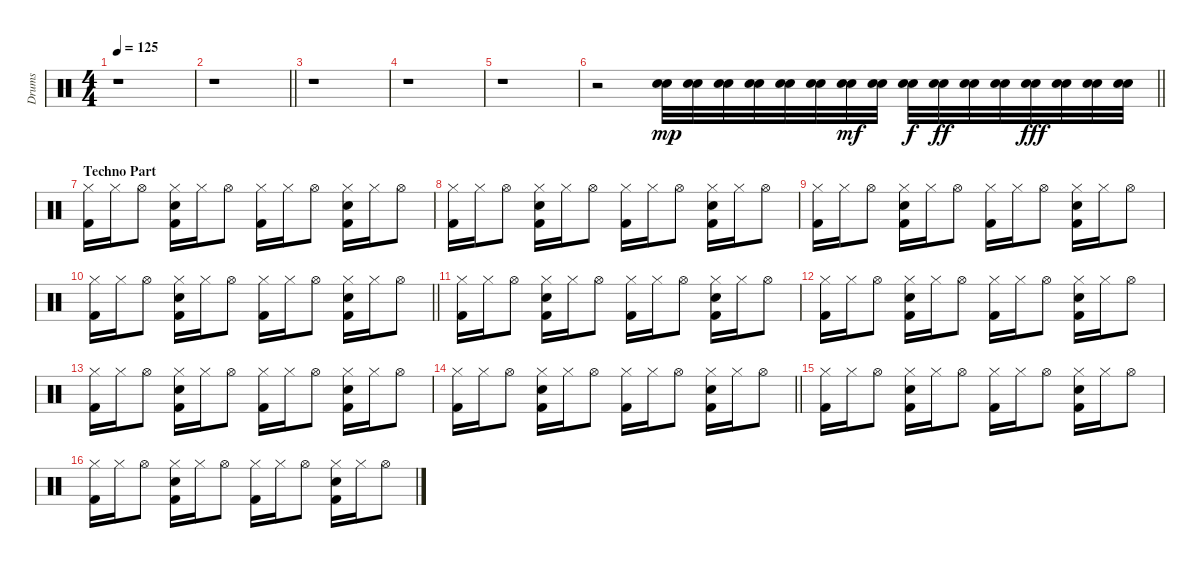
\track ("Drums" "Drums") {instrument percussion}
\staff {score}
\articulation defaults
\ts (4 4)
\tempo 125
\clef neutral
\ks c
r.1{dy fff} |
\barLineRight lightlight
r.1 |
r.1 |
r.1 |
r.1 |
\barLineRight lightlight
r.2 ("Hand Clap (hit)" "Electric Snare (hit)").32{dy mp} ("Hand Clap (hit)" "Electric Snare (hit)").32 ("Hand Clap (hit)" "Electric Snare (hit)").32 ("Hand Clap (hit)" "Electric Snare (hit)").32 ("Hand Clap (hit)" "Electric Snare (hit)").32 ("Hand Clap (hit)" "Electric Snare (hit)").32 ("Hand Clap (hit)" "Electric Snare (hit)").32{dy mf} ("Hand Clap (hit)" "Electric Snare (hit)").32 ("Hand Clap (hit)" "Electric Snare (hit)").32{dy f} ("Hand Clap (hit)" "Electric Snare (hit)").32{dy ff} ("Hand Clap (hit)" "Electric Snare (hit)").32 ("Hand Clap (hit)" "Electric Snare (hit)").32 ("Hand Clap (hit)" "Electric Snare (hit)").32{dy fff} ("Hand Clap (hit)" "Electric Snare (hit)").32 ("Hand Clap (hit)" "Electric Snare (hit)").32 ("Hand Clap (hit)" "Electric Snare (hit)").32 |
\section ("" "Techno Part")
("Hi-Hat (closed)" "Kick (hit) 2").16 "Hi-Hat (closed)".16 "Hi-Hat (open)".8 ("Hi-Hat (closed)" "Hand Clap (hit)" "Kick (hit) 2").16 "Hi-Hat (closed)".16 "Hi-Hat (open)".8 ("Hi-Hat (closed)" "Kick (hit) 2").16 "Hi-Hat (closed)".16 "Hi-Hat (open)".8 ("Hi-Hat (closed)" "Hand Clap (hit)" "Kick (hit) 2").16 "Hi-Hat (closed)".16 "Hi-Hat (open)".8 |
("Hi-Hat (closed)" "Kick (hit) 2").16 "Hi-Hat (closed)".16 "Hi-Hat (open)".8 ("Hi-Hat (closed)" "Hand Clap (hit)" "Kick (hit) 2").16 "Hi-Hat (closed)".16 "Hi-Hat (open)".8 ("Hi-Hat (closed)" "Kick (hit) 2").16 "Hi-Hat (closed)".16 "Hi-Hat (open)".8 ("Hi-Hat (closed)" "Hand Clap (hit)" "Kick (hit) 2").16 "Hi-Hat (closed)".16 "Hi-Hat (open)".8 |
("Hi-Hat (closed)" "Kick (hit) 2").16 "Hi-Hat (closed)".16 "Hi-Hat (open)".8 ("Hi-Hat (closed)" "Hand Clap (hit)" "Kick (hit) 2").16 "Hi-Hat (closed)".16 "Hi-Hat (open)".8 ("Hi-Hat (closed)" "Kick (hit) 2").16 "Hi-Hat (closed)".16 "Hi-Hat (open)".8 ("Hi-Hat (closed)" "Hand Clap (hit)" "Kick (hit) 2").16 "Hi-Hat (closed)".16 "Hi-Hat (open)".8 |
\barLineRight lightlight
("Hi-Hat (closed)" "Kick (hit) 2").16 "Hi-Hat (closed)".16 "Hi-Hat (open)".8 ("Hi-Hat (closed)" "Hand Clap (hit)" "Kick (hit) 2").16 "Hi-Hat (closed)".16 "Hi-Hat (open)".8 ("Hi-Hat (closed)" "Kick (hit) 2").16 "Hi-Hat (closed)".16 "Hi-Hat (open)".8 ("Hi-Hat (closed)" "Hand Clap (hit)" "Kick (hit) 2").16 "Hi-Hat (closed)".16 "Hi-Hat (open)".8 |
("Hi-Hat (closed)" "Kick (hit) 2").16 "Hi-Hat (closed)".16 "Hi-Hat (open)".8 ("Hi-Hat (closed)" "Hand Clap (hit)" "Kick (hit) 2").16 "Hi-Hat (closed)".16 "Hi-Hat (open)".8 ("Hi-Hat (closed)" "Kick (hit) 2").16 "Hi-Hat (closed)".16 "Hi-Hat (open)".8 ("Hi-Hat (closed)" "Hand Clap (hit)" "Kick (hit) 2").16 "Hi-Hat (closed)".16 "Hi-Hat (open)".8 |
("Hi-Hat (closed)" "Kick (hit) 2").16 "Hi-Hat (closed)".16 "Hi-Hat (open)".8 ("Hi-Hat (closed)" "Hand Clap (hit)" "Kick (hit) 2").16 "Hi-Hat (closed)".16 "Hi-Hat (open)".8 ("Hi-Hat (closed)" "Kick (hit) 2").16 "Hi-Hat (closed)".16 "Hi-Hat (open)".8 ("Hi-Hat (closed)" "Hand Clap (hit)" "Kick (hit) 2").16 "Hi-Hat (closed)".16 "Hi-Hat (open)".8 |
("Hi-Hat (closed)" "Kick (hit) 2").16 "Hi-Hat (closed)".16 "Hi-Hat (open)".8 ("Hi-Hat (closed)" "Hand Clap (hit)" "Kick (hit) 2").16 "Hi-Hat (closed)".16 "Hi-Hat (open)".8 ("Hi-Hat (closed)" "Kick (hit) 2").16 "Hi-Hat (closed)".16 "Hi-Hat (open)".8 ("Hi-Hat (closed)" "Hand Clap (hit)" "Kick (hit) 2").16 "Hi-Hat (closed)".16 "Hi-Hat (open)".8 |
\barLineRight lightlight
("Hi-Hat (closed)" "Kick (hit) 2").16 "Hi-Hat (closed)".16 "Hi-Hat (open)".8 ("Hi-Hat (closed)" "Hand Clap (hit)" "Kick (hit) 2").16 "Hi-Hat (closed)".16 "Hi-Hat (open)".8 ("Hi-Hat (closed)" "Kick (hit) 2").16 "Hi-Hat (closed)".16 "Hi-Hat (open)".8 ("Hi-Hat (closed)" "Hand Clap (hit)" "Kick (hit) 2").16 "Hi-Hat (closed)".16 "Hi-Hat (open)".8 |
("Hi-Hat (closed)" "Kick (hit) 2").16 "Hi-Hat (closed)".16 "Hi-Hat (open)".8 ("Hi-Hat (closed)" "Hand Clap (hit)" "Kick (hit) 2").16 "Hi-Hat (closed)".16 "Hi-Hat (open)".8 ("Hi-Hat (closed)" "Kick (hit) 2").16 "Hi-Hat (closed)".16 "Hi-Hat (open)".8 ("Hi-Hat (closed)" "Hand Clap (hit)" "Kick (hit) 2").16 "Hi-Hat (closed)".16 "Hi-Hat (open)".8 |
("Hi-Hat (closed)" "Kick (hit) 2").16 "Hi-Hat (closed)".16 "Hi-Hat (open)".8 ("Hi-Hat (closed)" "Hand Clap (hit)" "Kick (hit) 2").16 "Hi-Hat (closed)".16 "Hi-Hat (open)".8 ("Hi-Hat (closed)" "Kick (hit) 2").16 "Hi-Hat (closed)".16 "Hi-Hat (open)".8 ("Hi-Hat (closed)" "Hand Clap (hit)" "Kick (hit) 2").16 "Hi-Hat (closed)".16 "Hi-Hat (open)".8
